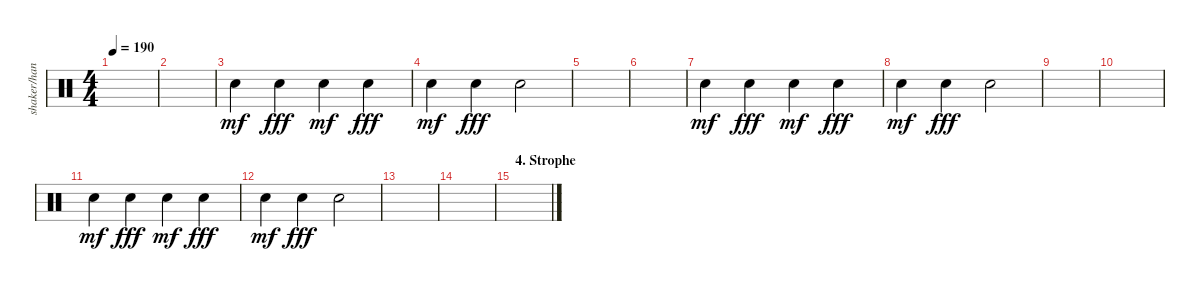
\track ("shaker/hand clap" "shaker/han") {instrument percussion}
\staff {score}
\articulation defaults
\ts (4 4)
\tempo 190
\clef neutral
\ks c
|
|
"Hand Clap (hit)".4{dy mf balance 0} "Hand Clap (hit)".4{dy fff balance 16} "Hand Clap (hit)".4{dy mf balance 0} "Hand Clap (hit)".4{dy fff balance 16} |
"Hand Clap (hit)".4{dy mf balance 0} "Hand Clap (hit)".4{dy fff balance 16} "Hand Clap (hit)".2 |
|
|
"Hand Clap (hit)".4{dy mf balance 0} "Hand Clap (hit)".4{dy fff balance 16} "Hand Clap (hit)".4{dy mf balance 0} "Hand Clap (hit)".4{dy fff balance 16} |
"Hand Clap (hit)".4{dy mf balance 0} "Hand Clap (hit)".4{dy fff balance 16} "Hand Clap (hit)".2 |
|
|
"Hand Clap (hit)".4{dy mf balance 0} "Hand Clap (hit)".4{dy fff balance 16} "Hand Clap (hit)".4{dy mf balance 0} "Hand Clap (hit)".4{dy fff balance 16} |
"Hand Clap (hit)".4{dy mf balance 0} "Hand Clap (hit)".4{dy fff balance 16} "Hand Clap (hit)".2 |
|
|
\section ("" "4. Strophe")
